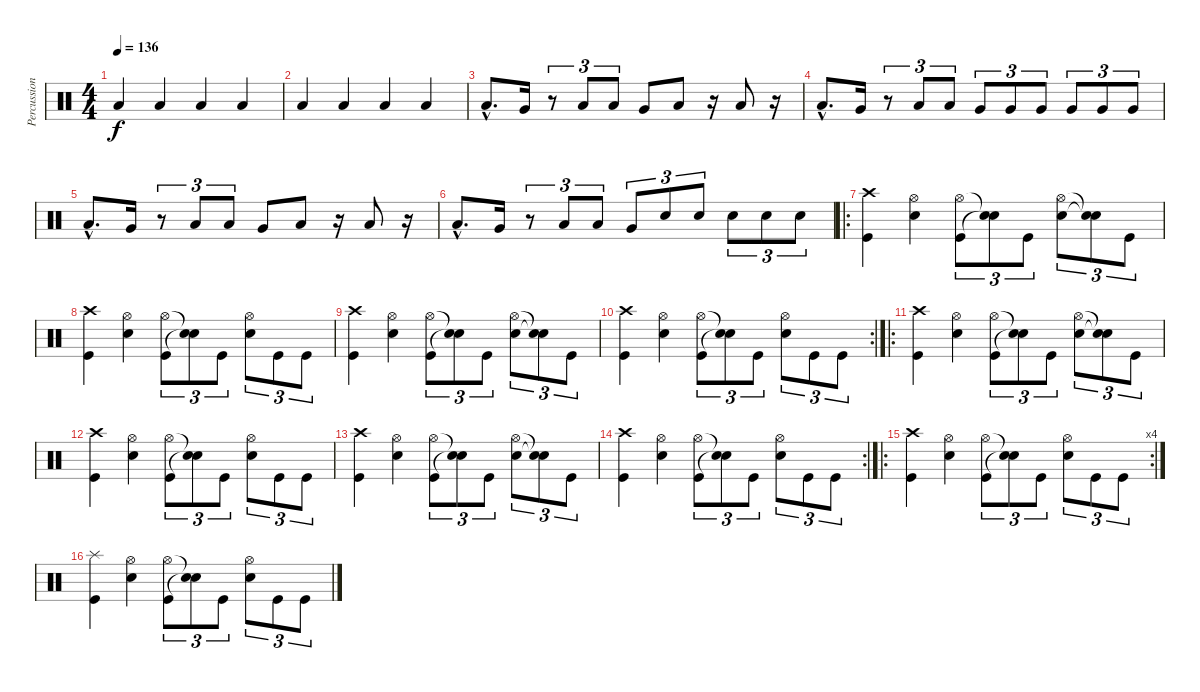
\track ("Percussions" "Percussion") {instrument percussion}
\staff {score}
\articulation defaults
\ts (4 4)
\tempo 136
\clef neutral
\ks c "Low Floor Tom (hit)".4{dy f} "Low Floor Tom (hit)".4 "Low Floor Tom (hit)".4 "Low Floor Tom (hit)".4
|
"Low Floor Tom (hit)".4 "Low Floor Tom (hit)".4 "Low Floor Tom (hit)".4 "Low Floor Tom (hit)".4 |
"Low Tom (hit)"{hac}.8{d} "Very Low Tom (hit)".16 r.8{tu (3 2)} "Low Floor Tom (hit)".8{tu (3 2)} "Low Floor Tom (hit)".8{tu (3 2)} "Very Low Tom (hit)".8 "Low Floor Tom (hit)".8 r.16 "Low Floor Tom (hit)".8 r.16 |
"Low Tom (hit)"{hac}.8{d} "Very Low Tom (hit)".16 r.8{tu (3 2)} "Low Floor Tom (hit)".8{tu (3 2)} "Low Floor Tom (hit)".8{tu (3 2)} "Very Low Tom (hit)".8{tu (3 2)} "Very Low Tom (hit)".8{tu (3 2)} "Very Low Tom (hit)".8{tu (3 2)} "Very Low Tom (hit)".8{tu (3 2)} "Very Low Tom (hit)".8{tu (3 2)} "Very Low Tom (hit)".8{tu (3 2)} |
"Low Tom (hit)"{hac}.8{d} "Very Low Tom (hit)".16 r.8{tu (3 2)} "Low Floor Tom (hit)".8{tu (3 2)} "Low Floor Tom (hit)".8{tu (3 2)} "Very Low Tom (hit)".8 "Low Floor Tom (hit)".8 r.16 "Low Floor Tom (hit)".8 r.16 |
"Low Tom (hit)"{hac}.8{d} "Very Low Tom (hit)".16 r.8{tu (3 2)} "Low Floor Tom (hit)".8{tu (3 2)} "Low Floor Tom (hit)".8{tu (3 2)} "Very Low Tom (hit)".8{tu (3 2)} "Snare (hit) 2".8{tu (3 2)} "Snare (hit) 2".8{tu (3 2)} "Snare (hit) 2".8{tu (3 2)} "Snare (hit) 2".8{tu (3 2)} "Snare (hit) 2".8{tu (3 2)} |
\ro
("Crash high (hit)" "Kick (hit)").4 ("Hi-Hat (open)" "Snare (hit) 2").4 ("Hi-Hat (open)" "Kick (hit)").8{tu (3 2)} ("Snare (hit)"{t} "Snare (hit)"{t}).8{tu (3 2)} "Kick (hit)".8{tu (3 2)} ("Hi-Hat (open)" "Snare (hit) 2").8{tu (3 2)} ("Snare (hit)"{t} "Snare (hit)"{t}).8{tu (3 2)} "Kick (hit)".8{tu (3 2)} |
("Crash high (hit)" "Kick (hit)").4 ("Hi-Hat (open)" "Snare (hit) 2").4 ("Hi-Hat (open)" "Kick (hit)").8{tu (3 2)} ("Snare (hit)"{t} "Snare (hit)"{t}).8{tu (3 2)} "Kick (hit)".8{tu (3 2)} ("Hi-Hat (open)" "Snare (hit) 2").8{tu (3 2)} "Kick (hit)".8{tu (3 2)} "Kick (hit)".8{tu (3 2)} |
("Crash high (hit)" "Kick (hit)").4 ("Hi-Hat (open)" "Snare (hit) 2").4 ("Hi-Hat (open)" "Kick (hit)").8{tu (3 2)} ("Snare (hit)"{t} "Snare (hit)"{t}).8{tu (3 2)} "Kick (hit)".8{tu (3 2)} ("Hi-Hat (open)" "Snare (hit) 2").8{tu (3 2)} ("Snare (hit)"{t} "Snare (hit)"{t}).8{tu (3 2)} "Kick (hit)".8{tu (3 2)} |
\rc 2
("Crash high (hit)" "Kick (hit)").4 ("Hi-Hat (open)" "Snare (hit) 2").4 ("Hi-Hat (open)" "Kick (hit)").8{tu (3 2)} ("Snare (hit)"{t} "Snare (hit)"{t}).8{tu (3 2)} "Kick (hit)".8{tu (3 2)} ("Hi-Hat (open)" "Snare (hit) 2").8{tu (3 2)} "Kick (hit)".8{tu (3 2)} "Kick (hit)".8{tu (3 2)} |
\ro
("Crash high (hit)" "Kick (hit)").4 ("Hi-Hat (open)" "Snare (hit) 2").4 ("Hi-Hat (open)" "Kick (hit)").8{tu (3 2)} ("Snare (hit)"{t} "Snare (hit)"{t}).8{tu (3 2)} "Kick (hit)".8{tu (3 2)} ("Hi-Hat (open)" "Snare (hit) 2").8{tu (3 2)} ("Snare (hit)"{t} "Snare (hit)"{t}).8{tu (3 2)} "Kick (hit)".8{tu (3 2)} |
("Crash high (hit)" "Kick (hit)").4 ("Hi-Hat (open)" "Snare (hit) 2").4 ("Hi-Hat (open)" "Kick (hit)").8{tu (3 2)} ("Snare (hit)"{t} "Snare (hit)"{t}).8{tu (3 2)} "Kick (hit)".8{tu (3 2)} ("Hi-Hat (open)" "Snare (hit) 2").8{tu (3 2)} "Kick (hit)".8{tu (3 2)} "Kick (hit)".8{tu (3 2)} |
("Crash high (hit)" "Kick (hit)").4 ("Hi-Hat (open)" "Snare (hit) 2").4 ("Hi-Hat (open)" "Kick (hit)").8{tu (3 2)} ("Snare (hit)"{t} "Snare (hit)"{t}).8{tu (3 2)} "Kick (hit)".8{tu (3 2)} ("Hi-Hat (open)" "Snare (hit) 2").8{tu (3 2)} ("Snare (hit)"{t} "Snare (hit)"{t}).8{tu (3 2)} "Kick (hit)".8{tu (3 2)} |
\rc 2
("Crash high (hit)" "Kick (hit)").4 ("Hi-Hat (open)" "Snare (hit) 2").4 ("Hi-Hat (open)" "Kick (hit)").8{tu (3 2)} ("Snare (hit)"{t} "Snare (hit)"{t}).8{tu (3 2)} "Kick (hit)".8{tu (3 2)} ("Hi-Hat (open)" "Snare (hit) 2").8{tu (3 2)} "Kick (hit)".8{tu (3 2)} "Kick (hit)".8{tu (3 2)} |
\ro
\rc 4
("Crash high (hit)" "Kick (hit)").4 ("Hi-Hat (open)" "Snare (hit) 2").4 ("Hi-Hat (open)" "Kick (hit)").8{tu (3 2)} ("Snare (hit)"{t} "Snare (hit)"{t}).8{tu (3 2)} "Kick (hit)".8{tu (3 2)} ("Hi-Hat (open)" "Snare (hit) 2").8{tu (3 2)} "Kick (hit)".8{tu (3 2)} "Kick (hit)".8{tu (3 2)} |
("Splash (hit)" "Kick (hit)").4 ("Hi-Hat (open)" "Snare (hit) 2").4 ("Hi-Hat (open)" "Kick (hit)").8{tu (3 2)} ("Snare (hit)"{t} "Snare (hit)"{t}).8{tu (3 2)} "Kick (hit)".8{tu (3 2)} ("Hi-Hat (open)" "Snare (hit) 2").8{tu (3 2)} "Kick (hit)".8{tu (3 2)} "Kick (hit)".8{tu (3 2)}
